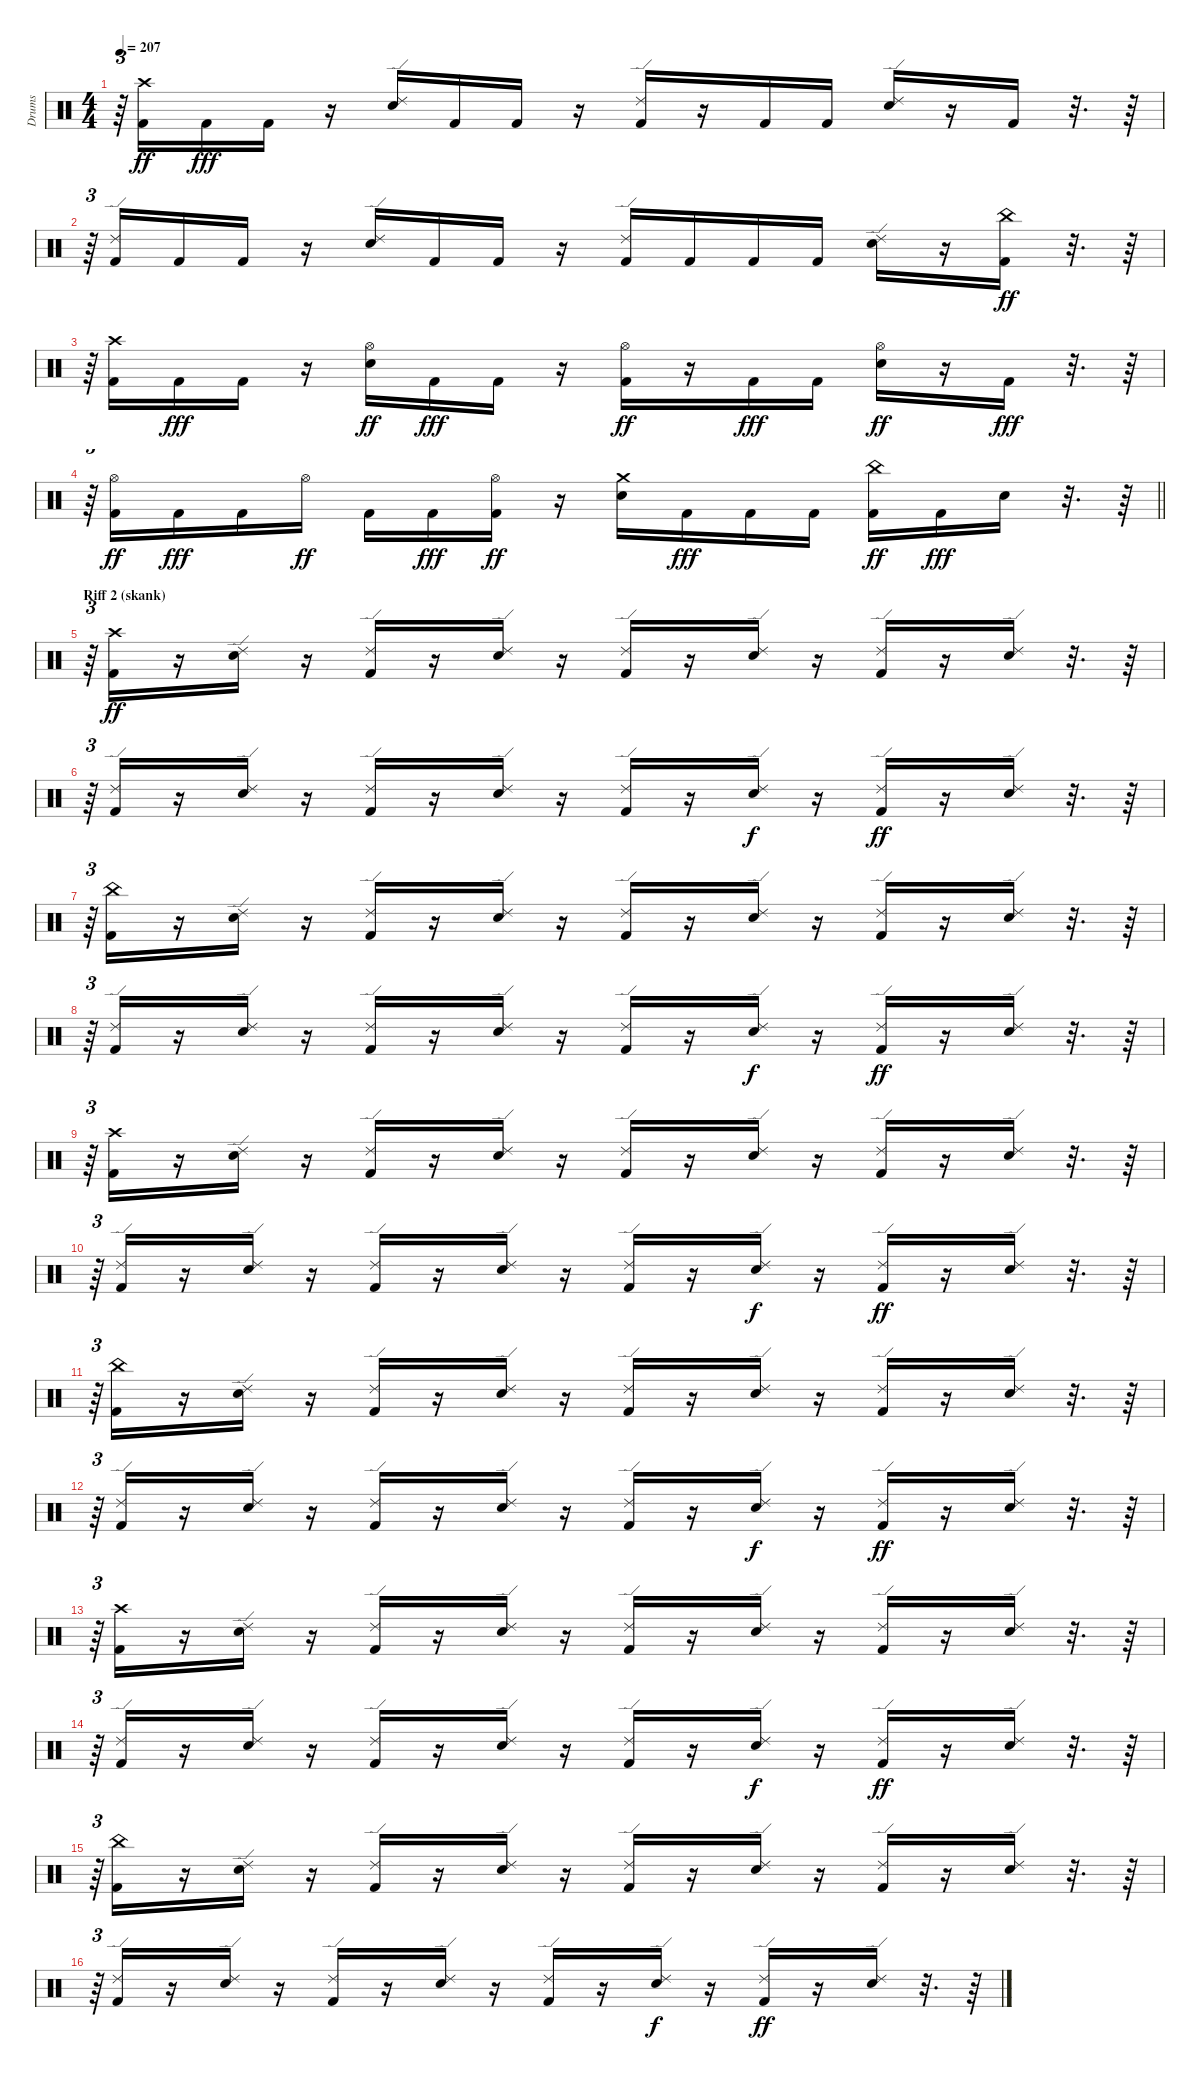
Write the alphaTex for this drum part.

\track ("Drums" "Drums") {instrument percussion}
\staff {score}
\articulation defaults
\ts (4 4)
\tempo 207
\clef neutral
\ks c
r.64{tu (3 2) dy fff} ("Kick (hit) 2" "Crash high (hit)").16{dy ff} "Kick (hit) 2".16{dy fff} "Kick (hit) 2".16 r.16 ("Snare (hit) 2" "Ride (edge) 2").16 "Kick (hit) 2".16 "Kick (hit) 2".16 r.16 ("Kick (hit) 2" "Ride (edge) 2").16 r.16 "Kick (hit) 2".16 "Kick (hit) 2".16 ("Snare (hit) 2" "Ride (edge) 2").16 r.16 "Kick (hit) 2".16 r.32{d} r.64 |
r.64{tu (3 2)} ("Kick (hit) 2" "Ride (edge) 2").16 "Kick (hit) 2".16 "Kick (hit) 2".16 r.16 ("Snare (hit) 2" "Ride (edge) 2").16 "Kick (hit) 2".16 "Kick (hit) 2".16 r.16 ("Kick (hit) 2" "Ride (edge) 2").16 "Kick (hit) 2".16 "Kick (hit) 2".16 "Kick (hit) 2".16 ("Snare (hit) 2" "Ride (edge) 2").16 r.16 ("Kick (hit) 2" "China (hit)").16{dy ff} r.32{d} r.64 |
r.64{tu (3 2)} ("Kick (hit) 2" "Crash high (hit)").16 "Kick (hit) 2".16{dy fff} "Kick (hit) 2".16 r.16 ("Snare (hit) 2" "Hi-Hat (open)").16{dy ff} "Kick (hit) 2".16{dy fff} "Kick (hit) 2".16 r.16 ("Kick (hit) 2" "Hi-Hat (open)").16{dy ff} r.16 "Kick (hit) 2".16{dy fff} "Kick (hit) 2".16 ("Snare (hit) 2" "Hi-Hat (open)").16{dy ff} r.16 "Kick (hit) 2".16{dy fff} r.32{d} r.64 |
\barLineRight lightlight
r.64{tu (3 2)} ("Kick (hit) 2" "Hi-Hat (open)").16{dy ff} "Kick (hit) 2".16{dy fff} "Kick (hit) 2".16 "Hi-Hat (open)".16{dy ff} "Kick (hit) 2".16 "Kick (hit) 2".16{dy fff} ("Kick (hit) 2" "Hi-Hat (open)").16{dy ff} r.16 ("Snare (hit) 2" "Crash medium (hit)").16 "Kick (hit) 2".16{dy fff} "Kick (hit) 2".16 "Kick (hit) 2".16 ("Kick (hit) 2" "China (hit)").16{dy ff} "Kick (hit) 2".16{dy fff} "Snare (hit) 2".16 r.32{d} r.64 |
\section ("" "Riff 2 (skank)")
r.64{tu (3 2)} ("Kick (hit) 2" "Crash high (hit)").16{dy ff} r.16 ("Snare (hit) 2" "Ride (edge) 2").16 r.16 ("Kick (hit) 2" "Ride (edge) 2").16 r.16 ("Snare (hit) 2" "Ride (edge) 2").16 r.16 ("Kick (hit) 2" "Ride (edge) 2").16 r.16 ("Snare (hit) 2" "Ride (edge) 2").16 r.16 ("Kick (hit) 2" "Ride (edge) 2").16 r.16 ("Snare (hit) 2" "Ride (edge) 2").16 r.32{d} r.64 |
r.64{tu (3 2)} ("Kick (hit) 2" "Ride (edge) 2").16 r.16 ("Snare (hit) 2" "Ride (edge) 2").16 r.16 ("Kick (hit) 2" "Ride (edge) 2").16 r.16 ("Snare (hit) 2" "Ride (edge) 2").16 r.16 ("Kick (hit) 2" "Ride (edge) 2").16 r.16 ("Snare (hit) 2" "Ride (edge) 2").16{dy f} r.16 ("Kick (hit) 2" "Ride (edge) 2").16{dy ff} r.16 ("Snare (hit) 2" "Ride (edge) 2").16 r.32{d} r.64 |
r.64{tu (3 2)} ("Kick (hit) 2" "China (hit)").16 r.16 ("Snare (hit) 2" "Ride (edge) 2").16 r.16 ("Kick (hit) 2" "Ride (edge) 2").16 r.16 ("Snare (hit) 2" "Ride (edge) 2").16 r.16 ("Kick (hit) 2" "Ride (edge) 2").16 r.16 ("Snare (hit) 2" "Ride (edge) 2").16 r.16 ("Kick (hit) 2" "Ride (edge) 2").16 r.16 ("Snare (hit) 2" "Ride (edge) 2").16 r.32{d} r.64 |
r.64{tu (3 2)} ("Kick (hit) 2" "Ride (edge) 2").16 r.16 ("Snare (hit) 2" "Ride (edge) 2").16 r.16 ("Kick (hit) 2" "Ride (edge) 2").16 r.16 ("Snare (hit) 2" "Ride (edge) 2").16 r.16 ("Kick (hit) 2" "Ride (edge) 2").16 r.16 ("Snare (hit) 2" "Ride (edge) 2").16{dy f} r.16 ("Kick (hit) 2" "Ride (edge) 2").16{dy ff} r.16 ("Snare (hit) 2" "Ride (edge) 2").16 r.32{d} r.64 |
r.64{tu (3 2)} ("Kick (hit) 2" "Crash high (hit)").16 r.16 ("Snare (hit) 2" "Ride (edge) 2").16 r.16 ("Kick (hit) 2" "Ride (edge) 2").16 r.16 ("Snare (hit) 2" "Ride (edge) 2").16 r.16 ("Kick (hit) 2" "Ride (edge) 2").16 r.16 ("Snare (hit) 2" "Ride (edge) 2").16 r.16 ("Kick (hit) 2" "Ride (edge) 2").16 r.16 ("Snare (hit) 2" "Ride (edge) 2").16 r.32{d} r.64 |
r.64{tu (3 2)} ("Kick (hit) 2" "Ride (edge) 2").16 r.16 ("Snare (hit) 2" "Ride (edge) 2").16 r.16 ("Kick (hit) 2" "Ride (edge) 2").16 r.16 ("Snare (hit) 2" "Ride (edge) 2").16 r.16 ("Kick (hit) 2" "Ride (edge) 2").16 r.16 ("Snare (hit) 2" "Ride (edge) 2").16{dy f} r.16 ("Kick (hit) 2" "Ride (edge) 2").16{dy ff} r.16 ("Snare (hit) 2" "Ride (edge) 2").16 r.32{d} r.64 |
r.64{tu (3 2)} ("Kick (hit) 2" "China (hit)").16 r.16 ("Snare (hit) 2" "Ride (edge) 2").16 r.16 ("Kick (hit) 2" "Ride (edge) 2").16 r.16 ("Snare (hit) 2" "Ride (edge) 2").16 r.16 ("Kick (hit) 2" "Ride (edge) 2").16 r.16 ("Snare (hit) 2" "Ride (edge) 2").16 r.16 ("Kick (hit) 2" "Ride (edge) 2").16 r.16 ("Snare (hit) 2" "Ride (edge) 2").16 r.32{d} r.64 |
r.64{tu (3 2)} ("Kick (hit) 2" "Ride (edge) 2").16 r.16 ("Snare (hit) 2" "Ride (edge) 2").16 r.16 ("Kick (hit) 2" "Ride (edge) 2").16 r.16 ("Snare (hit) 2" "Ride (edge) 2").16 r.16 ("Kick (hit) 2" "Ride (edge) 2").16 r.16 ("Snare (hit) 2" "Ride (edge) 2").16{dy f} r.16 ("Kick (hit) 2" "Ride (edge) 2").16{dy ff} r.16 ("Snare (hit) 2" "Ride (edge) 2").16 r.32{d} r.64 |
r.64{tu (3 2)} ("Kick (hit) 2" "Crash high (hit)").16 r.16 ("Snare (hit) 2" "Ride (edge) 2").16 r.16 ("Kick (hit) 2" "Ride (edge) 2").16 r.16 ("Snare (hit) 2" "Ride (edge) 2").16 r.16 ("Kick (hit) 2" "Ride (edge) 2").16 r.16 ("Snare (hit) 2" "Ride (edge) 2").16 r.16 ("Kick (hit) 2" "Ride (edge) 2").16 r.16 ("Snare (hit) 2" "Ride (edge) 2").16 r.32{d} r.64 |
r.64{tu (3 2)} ("Kick (hit) 2" "Ride (edge) 2").16 r.16 ("Snare (hit) 2" "Ride (edge) 2").16 r.16 ("Kick (hit) 2" "Ride (edge) 2").16 r.16 ("Snare (hit) 2" "Ride (edge) 2").16 r.16 ("Kick (hit) 2" "Ride (edge) 2").16 r.16 ("Snare (hit) 2" "Ride (edge) 2").16{dy f} r.16 ("Kick (hit) 2" "Ride (edge) 2").16{dy ff} r.16 ("Snare (hit) 2" "Ride (edge) 2").16 r.32{d} r.64 |
r.64{tu (3 2)} ("Kick (hit) 2" "China (hit)").16 r.16 ("Snare (hit) 2" "Ride (edge) 2").16 r.16 ("Kick (hit) 2" "Ride (edge) 2").16 r.16 ("Snare (hit) 2" "Ride (edge) 2").16 r.16 ("Kick (hit) 2" "Ride (edge) 2").16 r.16 ("Snare (hit) 2" "Ride (edge) 2").16 r.16 ("Kick (hit) 2" "Ride (edge) 2").16 r.16 ("Snare (hit) 2" "Ride (edge) 2").16 r.32{d} r.64 |
r.64{tu (3 2)} ("Kick (hit) 2" "Ride (edge) 2").16 r.16 ("Snare (hit) 2" "Ride (edge) 2").16 r.16 ("Kick (hit) 2" "Ride (edge) 2").16 r.16 ("Snare (hit) 2" "Ride (edge) 2").16 r.16 ("Kick (hit) 2" "Ride (edge) 2").16 r.16 ("Snare (hit) 2" "Ride (edge) 2").16{dy f} r.16 ("Kick (hit) 2" "Ride (edge) 2").16{dy ff} r.16 ("Snare (hit) 2" "Ride (edge) 2").16 r.32{d} r.64
